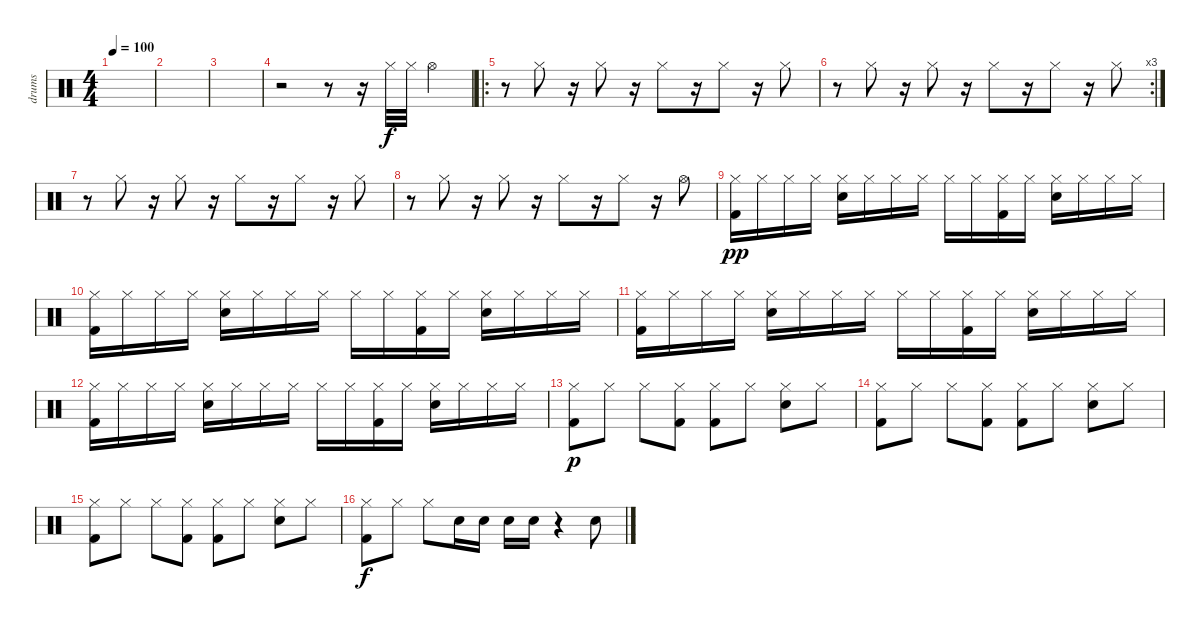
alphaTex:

\track ("drums" "drums") {instrument percussion}
\staff {score}
\articulation defaults
\ts (4 4)
\tempo 100
\clef neutral
\ks c
|
|
|
r.2 r.8 r.16 "Hi-Hat (closed)".32 "Hi-Hat (closed)".32 "Hi-Hat (open)".4 |
\ro
r.8 "Hi-Hat (closed)".8 r.16 "Hi-Hat (closed)".8 r.16 "Hi-Hat (closed)".8 r.16 "Hi-Hat (closed)".8 r.16 "Hi-Hat (closed)".8 |
\rc 3
r.8 "Hi-Hat (closed)".8 r.16 "Hi-Hat (closed)".8 r.16 "Hi-Hat (closed)".8 r.16 "Hi-Hat (closed)".8 r.16 "Hi-Hat (closed)".8 |
r.8 "Hi-Hat (closed)".8 r.16 "Hi-Hat (closed)".8 r.16 "Hi-Hat (closed)".8 r.16 "Hi-Hat (closed)".8 r.16 "Hi-Hat (closed)".8 |
r.8 "Hi-Hat (closed)".8 r.16 "Hi-Hat (closed)".8 r.16 "Hi-Hat (closed)".8 r.16 "Hi-Hat (closed)".8 r.16 "Hi-Hat (open)".8 |
("Hi-Hat (closed)" "Kick (hit) 2").16{dy pp} "Hi-Hat (closed)".16 "Hi-Hat (closed)".16 "Hi-Hat (closed)".16 ("Hi-Hat (closed)" "Electric Snare (hit)").16 "Hi-Hat (closed)".16 "Hi-Hat (closed)".16 "Hi-Hat (closed)".16 "Hi-Hat (closed)".16 "Hi-Hat (closed)".16 ("Hi-Hat (closed)" "Kick (hit) 2").16 "Hi-Hat (closed)".16 ("Hi-Hat (closed)" "Electric Snare (hit)").16 "Hi-Hat (closed)".16 "Hi-Hat (closed)".16 "Hi-Hat (closed)".16 |
("Hi-Hat (closed)" "Kick (hit) 2").16 "Hi-Hat (closed)".16 "Hi-Hat (closed)".16 "Hi-Hat (closed)".16 ("Hi-Hat (closed)" "Electric Snare (hit)").16 "Hi-Hat (closed)".16 "Hi-Hat (closed)".16 "Hi-Hat (closed)".16 "Hi-Hat (closed)".16 "Hi-Hat (closed)".16 ("Hi-Hat (closed)" "Kick (hit) 2").16 "Hi-Hat (closed)".16 ("Hi-Hat (closed)" "Electric Snare (hit)").16 "Hi-Hat (closed)".16 "Hi-Hat (closed)".16 "Hi-Hat (closed)".16 |
("Hi-Hat (closed)" "Kick (hit) 2").16 "Hi-Hat (closed)".16 "Hi-Hat (closed)".16 "Hi-Hat (closed)".16 ("Hi-Hat (closed)" "Electric Snare (hit)").16 "Hi-Hat (closed)".16 "Hi-Hat (closed)".16 "Hi-Hat (closed)".16 "Hi-Hat (closed)".16 "Hi-Hat (closed)".16 ("Hi-Hat (closed)" "Kick (hit) 2").16 "Hi-Hat (closed)".16 ("Hi-Hat (closed)" "Electric Snare (hit)").16 "Hi-Hat (closed)".16 "Hi-Hat (closed)".16 "Hi-Hat (closed)".16 |
("Hi-Hat (closed)" "Kick (hit) 2").16 "Hi-Hat (closed)".16 "Hi-Hat (closed)".16 "Hi-Hat (closed)".16 ("Hi-Hat (closed)" "Electric Snare (hit)").16 "Hi-Hat (closed)".16 "Hi-Hat (closed)".16 "Hi-Hat (closed)".16 "Hi-Hat (closed)".16 "Hi-Hat (closed)".16 ("Hi-Hat (closed)" "Kick (hit) 2").16 "Hi-Hat (closed)".16 ("Hi-Hat (closed)" "Electric Snare (hit)").16 "Hi-Hat (closed)".16 "Hi-Hat (closed)".16 "Hi-Hat (closed)".16 |
("Hi-Hat (closed)" "Kick (hit) 2").8{dy p} "Hi-Hat (closed)".8 "Hi-Hat (closed)".8 ("Hi-Hat (closed)" "Kick (hit) 2").8 ("Hi-Hat (closed)" "Kick (hit) 2").8 "Hi-Hat (closed)".8 ("Hi-Hat (closed)" "Electric Snare (hit)").8 "Hi-Hat (closed)".8 |
("Hi-Hat (closed)" "Kick (hit) 2").8 "Hi-Hat (closed)".8 "Hi-Hat (closed)".8 ("Hi-Hat (closed)" "Kick (hit) 2").8 ("Hi-Hat (closed)" "Kick (hit) 2").8 "Hi-Hat (closed)".8 ("Hi-Hat (closed)" "Electric Snare (hit)").8 "Hi-Hat (closed)".8 |
("Hi-Hat (closed)" "Kick (hit) 2").8 "Hi-Hat (closed)".8 "Hi-Hat (closed)".8 ("Hi-Hat (closed)" "Kick (hit) 2").8 ("Hi-Hat (closed)" "Kick (hit) 2").8 "Hi-Hat (closed)".8 ("Hi-Hat (closed)" "Electric Snare (hit)").8 "Hi-Hat (closed)".8 |
("Hi-Hat (closed)" "Kick (hit) 2").8{dy f} "Hi-Hat (closed)".8 "Hi-Hat (closed)".8 "Electric Snare (hit)".16 "Electric Snare (hit)".16 "Electric Snare (hit)".16 "Electric Snare (hit)".16 r.4 "Snare (hit)".8
